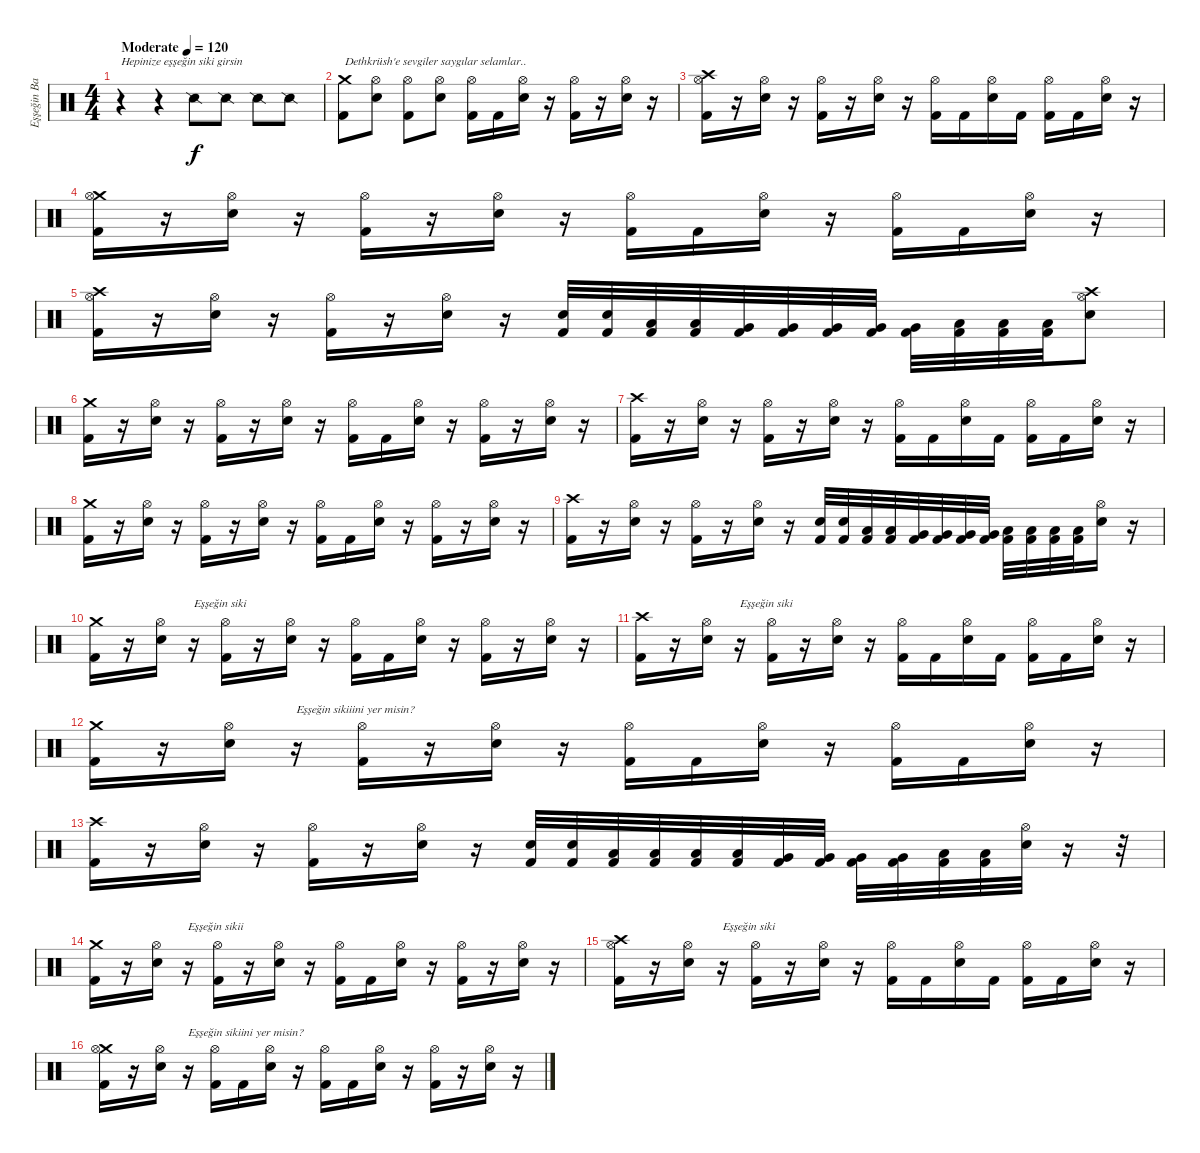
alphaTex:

\track ("Eşşeğin Baterisi" "Eşşeğin Ba") {instrument percussion}
\staff {score}
\articulation defaults
\ts (4 4)
\tempo (120 "Moderate")
\clef neutral
\ks c
r.4{txt "Hepinize eşşeğin siki girsin" dy f} r.4 "Snare (side stick) 2".8 "Snare (side stick) 2".8 "Snare (side stick) 2".8 "Snare (side stick) 2".8 |
("Crash medium (hit)" "Kick (hit) 2").8{txt "Dethkrüsh'e sevgiler saygılar selamlar.."} ("Electric Snare (hit)" "Hi-Hat (open)").8 ("Kick (hit) 2" "Hi-Hat (open)").8 ("Electric Snare (hit)" "Hi-Hat (open)").8 ("Hi-Hat (open)" "Kick (hit) 2").16 "Kick (hit) 2".16 ("Electric Snare (hit)" "Hi-Hat (open)").16 r.16 ("Kick (hit) 2" "Hi-Hat (open)").16 r.16 ("Electric Snare (hit)" "Hi-Hat (open)").16 r.16 |
("Crash high (hit)" "Hi-Hat (open)" "Kick (hit) 2").16 r.16 ("Hi-Hat (open)" "Electric Snare (hit)").16 r.16 ("Hi-Hat (open)" "Kick (hit) 2").16 r.16 ("Hi-Hat (open)" "Electric Snare (hit)").16 r.16 ("Hi-Hat (open)" "Kick (hit) 2").16 "Kick (hit) 2".16 ("Hi-Hat (open)" "Electric Snare (hit)").16 "Kick (hit) 2".16 ("Hi-Hat (open)" "Kick (hit) 2").16 "Kick (hit) 2".16 ("Hi-Hat (open)" "Electric Snare (hit)").16 r.16 |
("Crash medium (hit)" "Hi-Hat (open)" "Kick (hit) 2").16 r.16 ("Hi-Hat (open)" "Electric Snare (hit)").16 r.16 ("Hi-Hat (open)" "Kick (hit) 2").16 r.16 ("Hi-Hat (open)" "Electric Snare (hit)").16 r.16 ("Hi-Hat (open)" "Kick (hit) 2").16 "Kick (hit) 2".16 ("Hi-Hat (open)" "Electric Snare (hit)").16 r.16 ("Hi-Hat (open)" "Kick (hit) 2").16 "Kick (hit) 2".16 ("Hi-Hat (open)" "Electric Snare (hit)").16 r.16 |
("Crash high (hit)" "Hi-Hat (open)" "Kick (hit) 2").16 r.16 ("Hi-Hat (open)" "Electric Snare (hit)").16 r.16 ("Hi-Hat (open)" "Kick (hit) 2").16 r.16 ("Hi-Hat (open)" "Electric Snare (hit)").16 r.16 ("Electric Snare (hit)" "Kick (hit) 2").32 ("Electric Snare (hit)" "Kick (hit) 2").32 ("Low Tom (hit)" "Kick (hit) 2").32 ("Low Tom (hit)" "Kick (hit) 2").32 ("Very Low Tom (hit)" "Kick (hit) 2").32 ("Very Low Tom (hit)" "Kick (hit) 2").32 ("Very Low Tom (hit)" "Kick (hit) 2").32 ("Very Low Tom (hit)" "Kick (hit) 2").32 ("Very Low Tom (hit)" "Kick (hit) 2").32 ("Low Floor Tom (hit)" "Kick (hit) 2").32 ("Low Floor Tom (hit)" "Kick (hit) 2").32 ("Low Floor Tom (hit)" "Kick (hit) 2").32 ("Crash high (hit)" "Electric Snare (hit)" "Hi-Hat (open)").8 |
("Crash medium (hit)" "Kick (hit) 2").16 r.16 ("Hi-Hat (open)" "Electric Snare (hit)").16 r.16 ("Hi-Hat (open)" "Kick (hit) 2").16 r.16 ("Hi-Hat (open)" "Electric Snare (hit)").16 r.16 ("Hi-Hat (open)" "Kick (hit) 2").16 "Kick (hit) 2".16 ("Hi-Hat (open)" "Electric Snare (hit)").16 r.16 ("Hi-Hat (open)" "Kick (hit) 2").16 r.16 ("Hi-Hat (open)" "Electric Snare (hit)").16 r.16 |
("Crash high (hit)" "Kick (hit) 2").16 r.16 ("Hi-Hat (open)" "Electric Snare (hit)").16 r.16 ("Hi-Hat (open)" "Kick (hit) 2").16 r.16 ("Hi-Hat (open)" "Electric Snare (hit)").16 r.16 ("Hi-Hat (open)" "Kick (hit) 2").16 "Kick (hit) 2".16 ("Hi-Hat (open)" "Electric Snare (hit)").16 "Kick (hit) 2".16 ("Hi-Hat (open)" "Kick (hit) 2").16 "Kick (hit) 2".16 ("Hi-Hat (open)" "Electric Snare (hit)").16 r.16 |
("Crash medium (hit)" "Kick (hit) 2").16 r.16 ("Hi-Hat (open)" "Electric Snare (hit)").16 r.16 ("Hi-Hat (open)" "Kick (hit) 2").16 r.16 ("Hi-Hat (open)" "Electric Snare (hit)").16 r.16 ("Hi-Hat (open)" "Kick (hit) 2").16 "Kick (hit) 2".16 ("Hi-Hat (open)" "Electric Snare (hit)").16 r.16 ("Hi-Hat (open)" "Kick (hit) 2").16 r.16 ("Hi-Hat (open)" "Electric Snare (hit)").16 r.16 |
("Crash high (hit)" "Kick (hit) 2").16 r.16 ("Hi-Hat (open)" "Electric Snare (hit)").16 r.16 ("Hi-Hat (open)" "Kick (hit) 2").16 r.16 ("Hi-Hat (open)" "Electric Snare (hit)").16 r.16 ("Electric Snare (hit)" "Kick (hit) 2").32 ("Electric Snare (hit)" "Kick (hit) 2").32 ("Low Tom (hit)" "Kick (hit) 2").32 ("Low Tom (hit)" "Kick (hit) 2").32 ("Very Low Tom (hit)" "Kick (hit) 2").32 ("Very Low Tom (hit)" "Kick (hit) 2").32 ("Very Low Tom (hit)" "Kick (hit) 2").32 ("Very Low Tom (hit)" "Kick (hit) 2").32 ("Low Floor Tom (hit)" "Kick (hit) 2").32 ("Low Floor Tom (hit)" "Kick (hit) 2").32 ("Low Floor Tom (hit)" "Kick (hit) 2").32 ("Low Floor Tom (hit)" "Kick (hit) 2").32 ("Hi-Hat (open)" "Electric Snare (hit)").16 r.16 |
("Crash medium (hit)" "Kick (hit) 2").16 r.16 ("Hi-Hat (open)" "Electric Snare (hit)").16 r.16{txt "Eşşeğin siki"} ("Hi-Hat (open)" "Kick (hit) 2").16 r.16 ("Hi-Hat (open)" "Electric Snare (hit)").16 r.16 ("Hi-Hat (open)" "Kick (hit) 2").16 "Kick (hit) 2".16 ("Hi-Hat (open)" "Electric Snare (hit)").16 r.16 ("Hi-Hat (open)" "Kick (hit) 2").16 r.16 ("Hi-Hat (open)" "Electric Snare (hit)").16 r.16 |
("Crash high (hit)" "Kick (hit) 2").16 r.16 ("Hi-Hat (open)" "Electric Snare (hit)").16 r.16{txt "Eşşeğin siki"} ("Hi-Hat (open)" "Kick (hit) 2").16 r.16 ("Hi-Hat (open)" "Electric Snare (hit)").16 r.16 ("Hi-Hat (open)" "Kick (hit) 2").16 "Kick (hit) 2".16 ("Hi-Hat (open)" "Electric Snare (hit)").16 "Kick (hit) 2".16 ("Hi-Hat (open)" "Kick (hit) 2").16 "Kick (hit) 2".16 ("Hi-Hat (open)" "Electric Snare (hit)").16 r.16 |
("Crash medium (hit)" "Kick (hit) 2").16 r.16 ("Hi-Hat (open)" "Electric Snare (hit)").16 r.16{txt "Eşşeğin sikiiini yer misin?"} ("Hi-Hat (open)" "Kick (hit) 2").16 r.16 ("Hi-Hat (open)" "Electric Snare (hit)").16 r.16 ("Hi-Hat (open)" "Kick (hit) 2").16 "Kick (hit) 2".16 ("Hi-Hat (open)" "Electric Snare (hit)").16 r.16 ("Hi-Hat (open)" "Kick (hit) 2").16 "Kick (hit) 2".16 ("Hi-Hat (open)" "Electric Snare (hit)").16 r.16 |
("Crash high (hit)" "Kick (hit) 2").16 r.16 ("Hi-Hat (open)" "Electric Snare (hit)").16 r.16 ("Hi-Hat (open)" "Kick (hit) 2").16 r.16 ("Hi-Hat (open)" "Electric Snare (hit)").16 r.16 ("Electric Snare (hit)" "Kick (hit) 2").32 ("Electric Snare (hit)" "Kick (hit) 2").32 ("Low Tom (hit)" "Kick (hit) 2").32 ("Low Tom (hit)" "Kick (hit) 2").32 ("Low Tom (hit)" "Kick (hit) 2").32 ("Low Tom (hit)" "Kick (hit) 2").32 ("Very Low Tom (hit)" "Kick (hit) 2").32 ("Very Low Tom (hit)" "Kick (hit) 2").32 ("Very Low Tom (hit)" "Kick (hit) 2").32 ("Very Low Tom (hit)" "Kick (hit) 2").32 ("Low Floor Tom (hit)" "Kick (hit) 2").32 ("Low Floor Tom (hit)" "Kick (hit) 2").32 ("Hi-Hat (open)" "Electric Snare (hit)").32 r.16 r.32 |
("Crash medium (hit)" "Kick (hit) 2").16 r.16 ("Hi-Hat (open)" "Electric Snare (hit)").16 r.16{txt "Eşşeğin sikii"} ("Hi-Hat (open)" "Kick (hit) 2").16 r.16 ("Hi-Hat (open)" "Electric Snare (hit)").16 r.16 ("Hi-Hat (open)" "Kick (hit) 2").16 "Kick (hit) 2".16 ("Hi-Hat (open)" "Electric Snare (hit)").16 r.16 ("Hi-Hat (open)" "Kick (hit) 2").16 r.16 ("Hi-Hat (open)" "Electric Snare (hit)").16 r.16 |
("Crash high (hit)" "Hi-Hat (open)" "Kick (hit) 2").16 r.16 ("Hi-Hat (open)" "Electric Snare (hit)").16 r.16{txt "Eşşeğin siki"} ("Hi-Hat (open)" "Kick (hit) 2").16 r.16 ("Hi-Hat (open)" "Electric Snare (hit)").16 r.16 ("Hi-Hat (open)" "Kick (hit) 2").16 "Kick (hit) 2".16 ("Hi-Hat (open)" "Electric Snare (hit)").16 "Kick (hit) 2".16 ("Hi-Hat (open)" "Kick (hit) 2").16 "Kick (hit) 2".16 ("Hi-Hat (open)" "Electric Snare (hit)").16 r.16 |
("Crash medium (hit)" "Hi-Hat (open)" "Kick (hit) 2").16 r.16 ("Hi-Hat (open)" "Electric Snare (hit)").16 r.16{txt "Eşşeğin sikiini yer misin?"} ("Hi-Hat (open)" "Kick (hit) 2").16 "Kick (hit) 2".16 ("Hi-Hat (open)" "Electric Snare (hit)").16 r.16 ("Hi-Hat (open)" "Kick (hit) 2").16 "Kick (hit) 2".16 ("Hi-Hat (open)" "Electric Snare (hit)").16 r.16 ("Hi-Hat (open)" "Kick (hit) 2").16 r.16 ("Hi-Hat (open)" "Electric Snare (hit)").16 r.16
